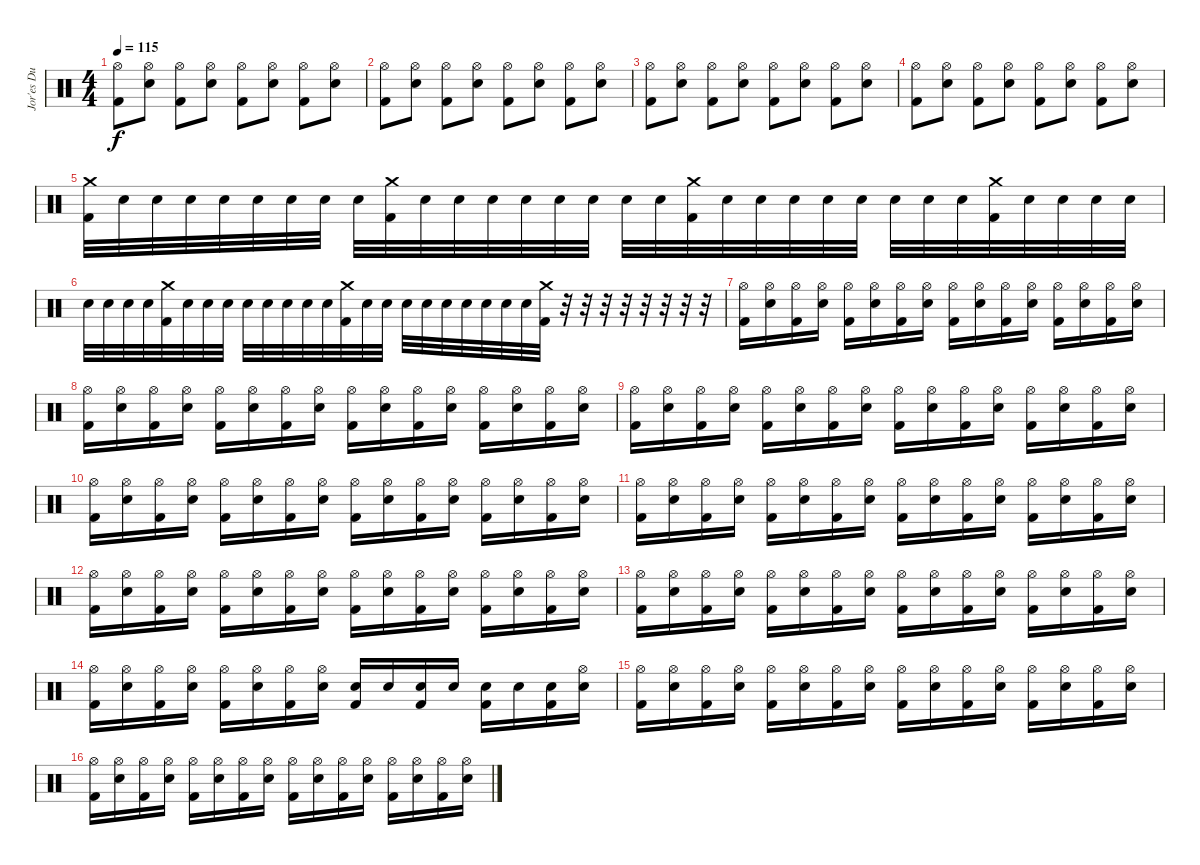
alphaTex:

\track ("Jor'es Du True" "Jor'es Du ") {instrument percussion}
\staff {score}
\articulation defaults
\ts (4 4)
\tempo 115
\clef neutral
\ks c
("Hi-Hat (open)" "Kick (hit) 2").8{dy f} ("Hi-Hat (open)" "Electric Snare (hit)").8 ("Hi-Hat (open)" "Kick (hit) 2").8 ("Hi-Hat (open)" "Electric Snare (hit)").8 ("Hi-Hat (open)" "Kick (hit) 2").8 ("Hi-Hat (open)" "Electric Snare (hit)").8 ("Hi-Hat (open)" "Kick (hit) 2").8 ("Hi-Hat (open)" "Electric Snare (hit)").8 |
("Hi-Hat (open)" "Kick (hit) 2").8 ("Hi-Hat (open)" "Electric Snare (hit)").8 ("Hi-Hat (open)" "Kick (hit) 2").8 ("Hi-Hat (open)" "Electric Snare (hit)").8 ("Hi-Hat (open)" "Kick (hit) 2").8 ("Hi-Hat (open)" "Electric Snare (hit)").8 ("Hi-Hat (open)" "Kick (hit) 2").8 ("Hi-Hat (open)" "Electric Snare (hit)").8 |
("Hi-Hat (open)" "Kick (hit) 2").8 ("Hi-Hat (open)" "Electric Snare (hit)").8 ("Hi-Hat (open)" "Kick (hit) 2").8 ("Hi-Hat (open)" "Electric Snare (hit)").8 ("Hi-Hat (open)" "Kick (hit) 2").8 ("Hi-Hat (open)" "Electric Snare (hit)").8 ("Hi-Hat (open)" "Kick (hit) 2").8 ("Hi-Hat (open)" "Electric Snare (hit)").8 |
("Hi-Hat (open)" "Kick (hit) 2").8 ("Hi-Hat (open)" "Electric Snare (hit)").8 ("Hi-Hat (open)" "Kick (hit) 2").8 ("Hi-Hat (open)" "Electric Snare (hit)").8 ("Hi-Hat (open)" "Kick (hit) 2").8 ("Hi-Hat (open)" "Electric Snare (hit)").8 ("Hi-Hat (open)" "Kick (hit) 2").8 ("Hi-Hat (open)" "Electric Snare (hit)").8 |
("Crash medium (hit)" "Kick (hit) 2").32 "Electric Snare (hit)".32 "Electric Snare (hit)".32 "Electric Snare (hit)".32 "Electric Snare (hit)".32 "Electric Snare (hit)".32 "Electric Snare (hit)".32 "Electric Snare (hit)".32 "Electric Snare (hit)".32 ("Crash medium (hit)" "Kick (hit) 2").32 "Electric Snare (hit)".32 "Electric Snare (hit)".32 "Electric Snare (hit)".32 "Electric Snare (hit)".32 "Electric Snare (hit)".32 "Electric Snare (hit)".32 "Electric Snare (hit)".32 "Electric Snare (hit)".32 ("Crash medium (hit)" "Kick (hit) 2").32 "Electric Snare (hit)".32 "Electric Snare (hit)".32 "Electric Snare (hit)".32 "Electric Snare (hit)".32 "Electric Snare (hit)".32 "Electric Snare (hit)".32 "Electric Snare (hit)".32 "Electric Snare (hit)".32 ("Crash medium (hit)" "Kick (hit) 2").32 "Electric Snare (hit)".32 "Electric Snare (hit)".32 "Electric Snare (hit)".32 "Electric Snare (hit)".32 |
"Electric Snare (hit)".32 "Electric Snare (hit)".32 "Electric Snare (hit)".32 "Electric Snare (hit)".32 ("Crash medium (hit)" "Kick (hit) 2").32 "Electric Snare (hit)".32 "Electric Snare (hit)".32 "Electric Snare (hit)".32 "Electric Snare (hit)".32 "Electric Snare (hit)".32 "Electric Snare (hit)".32 "Electric Snare (hit)".32 "Electric Snare (hit)".32 ("Crash medium (hit)" "Kick (hit) 2").32 "Electric Snare (hit)".32 "Electric Snare (hit)".32 "Electric Snare (hit)".32 "Electric Snare (hit)".32 "Electric Snare (hit)".32 "Electric Snare (hit)".32 "Electric Snare (hit)".32 "Electric Snare (hit)".32 "Electric Snare (hit)".32 ("Crash medium (hit)" "Kick (hit) 2").32 r.32 r.32 r.32 r.32 r.32 r.32 r.32 r.32 |
("Hi-Hat (open)" "Kick (hit) 2").16 ("Hi-Hat (open)" "Electric Snare (hit)").16 ("Hi-Hat (open)" "Kick (hit) 2").16 ("Hi-Hat (open)" "Electric Snare (hit)").16 ("Hi-Hat (open)" "Kick (hit) 2").16 ("Hi-Hat (open)" "Electric Snare (hit)").16 ("Hi-Hat (open)" "Kick (hit) 2").16 ("Hi-Hat (open)" "Electric Snare (hit)").16 ("Hi-Hat (open)" "Kick (hit) 2").16 ("Hi-Hat (open)" "Electric Snare (hit)").16 ("Hi-Hat (open)" "Kick (hit) 2").16 ("Hi-Hat (open)" "Electric Snare (hit)").16 ("Hi-Hat (open)" "Kick (hit) 2").16 ("Hi-Hat (open)" "Electric Snare (hit)").16 ("Hi-Hat (open)" "Kick (hit) 2").16 ("Hi-Hat (open)" "Electric Snare (hit)").16 |
("Hi-Hat (open)" "Kick (hit) 2").16 ("Hi-Hat (open)" "Electric Snare (hit)").16 ("Hi-Hat (open)" "Kick (hit) 2").16 ("Hi-Hat (open)" "Electric Snare (hit)").16 ("Hi-Hat (open)" "Kick (hit) 2").16 ("Hi-Hat (open)" "Electric Snare (hit)").16 ("Hi-Hat (open)" "Kick (hit) 2").16 ("Hi-Hat (open)" "Electric Snare (hit)").16 ("Hi-Hat (open)" "Kick (hit) 2").16 ("Hi-Hat (open)" "Electric Snare (hit)").16 ("Hi-Hat (open)" "Kick (hit) 2").16 ("Hi-Hat (open)" "Electric Snare (hit)").16 ("Hi-Hat (open)" "Kick (hit) 2").16 ("Hi-Hat (open)" "Electric Snare (hit)").16 ("Hi-Hat (open)" "Kick (hit) 2").16 ("Hi-Hat (open)" "Electric Snare (hit)").16 |
("Hi-Hat (open)" "Kick (hit) 2").16 ("Hi-Hat (open)" "Electric Snare (hit)").16 ("Hi-Hat (open)" "Kick (hit) 2").16 ("Hi-Hat (open)" "Electric Snare (hit)").16 ("Hi-Hat (open)" "Kick (hit) 2").16 ("Hi-Hat (open)" "Electric Snare (hit)").16 ("Hi-Hat (open)" "Kick (hit) 2").16 ("Hi-Hat (open)" "Electric Snare (hit)").16 ("Hi-Hat (open)" "Kick (hit) 2").16 ("Hi-Hat (open)" "Electric Snare (hit)").16 ("Hi-Hat (open)" "Kick (hit) 2").16 ("Hi-Hat (open)" "Electric Snare (hit)").16 ("Hi-Hat (open)" "Kick (hit) 2").16 ("Hi-Hat (open)" "Electric Snare (hit)").16 ("Hi-Hat (open)" "Kick (hit) 2").16 ("Hi-Hat (open)" "Electric Snare (hit)").16 |
("Hi-Hat (open)" "Kick (hit) 2").16 ("Hi-Hat (open)" "Electric Snare (hit)").16 ("Hi-Hat (open)" "Kick (hit) 2").16 ("Hi-Hat (open)" "Electric Snare (hit)").16 ("Hi-Hat (open)" "Kick (hit) 2").16 ("Hi-Hat (open)" "Electric Snare (hit)").16 ("Hi-Hat (open)" "Kick (hit) 2").16 ("Hi-Hat (open)" "Electric Snare (hit)").16 ("Hi-Hat (open)" "Kick (hit) 2").16 ("Hi-Hat (open)" "Electric Snare (hit)").16 ("Hi-Hat (open)" "Kick (hit) 2").16 ("Hi-Hat (open)" "Electric Snare (hit)").16 ("Hi-Hat (open)" "Kick (hit) 2").16 ("Hi-Hat (open)" "Electric Snare (hit)").16 ("Hi-Hat (open)" "Kick (hit) 2").16 ("Hi-Hat (open)" "Electric Snare (hit)").16 |
("Hi-Hat (open)" "Kick (hit) 2").16 ("Hi-Hat (open)" "Electric Snare (hit)").16 ("Hi-Hat (open)" "Kick (hit) 2").16 ("Hi-Hat (open)" "Electric Snare (hit)").16 ("Hi-Hat (open)" "Kick (hit) 2").16 ("Hi-Hat (open)" "Electric Snare (hit)").16 ("Hi-Hat (open)" "Kick (hit) 2").16 ("Hi-Hat (open)" "Electric Snare (hit)").16 ("Hi-Hat (open)" "Kick (hit) 2").16 ("Hi-Hat (open)" "Electric Snare (hit)").16 ("Hi-Hat (open)" "Kick (hit) 2").16 ("Hi-Hat (open)" "Electric Snare (hit)").16 ("Hi-Hat (open)" "Kick (hit) 2").16 ("Hi-Hat (open)" "Electric Snare (hit)").16 ("Hi-Hat (open)" "Kick (hit) 2").16 ("Hi-Hat (open)" "Electric Snare (hit)").16 |
("Hi-Hat (open)" "Kick (hit) 2").16 ("Hi-Hat (open)" "Electric Snare (hit)").16 ("Hi-Hat (open)" "Kick (hit) 2").16 ("Hi-Hat (open)" "Electric Snare (hit)").16 ("Hi-Hat (open)" "Kick (hit) 2").16 ("Hi-Hat (open)" "Electric Snare (hit)").16 ("Hi-Hat (open)" "Kick (hit) 2").16 ("Hi-Hat (open)" "Electric Snare (hit)").16 ("Hi-Hat (open)" "Kick (hit) 2").16 ("Hi-Hat (open)" "Electric Snare (hit)").16 ("Hi-Hat (open)" "Kick (hit) 2").16 ("Hi-Hat (open)" "Electric Snare (hit)").16 ("Hi-Hat (open)" "Kick (hit) 2").16 ("Hi-Hat (open)" "Electric Snare (hit)").16 ("Hi-Hat (open)" "Kick (hit) 2").16 ("Hi-Hat (open)" "Electric Snare (hit)").16 |
("Hi-Hat (open)" "Kick (hit) 2").16 ("Hi-Hat (open)" "Electric Snare (hit)").16 ("Hi-Hat (open)" "Kick (hit) 2").16 ("Hi-Hat (open)" "Electric Snare (hit)").16 ("Hi-Hat (open)" "Kick (hit) 2").16 ("Hi-Hat (open)" "Electric Snare (hit)").16 ("Hi-Hat (open)" "Kick (hit) 2").16 ("Hi-Hat (open)" "Electric Snare (hit)").16 ("Hi-Hat (open)" "Kick (hit) 2").16 ("Hi-Hat (open)" "Electric Snare (hit)").16 ("Hi-Hat (open)" "Kick (hit) 2").16 ("Hi-Hat (open)" "Electric Snare (hit)").16 ("Hi-Hat (open)" "Kick (hit) 2").16 ("Hi-Hat (open)" "Electric Snare (hit)").16 ("Hi-Hat (open)" "Kick (hit) 2").16 ("Hi-Hat (open)" "Electric Snare (hit)").16 |
("Hi-Hat (open)" "Kick (hit) 2").16 ("Hi-Hat (open)" "Electric Snare (hit)").16 ("Hi-Hat (open)" "Kick (hit) 2").16 ("Hi-Hat (open)" "Electric Snare (hit)").16 ("Hi-Hat (open)" "Kick (hit) 2").16 ("Hi-Hat (open)" "Electric Snare (hit)").16 ("Hi-Hat (open)" "Kick (hit) 2").16 ("Hi-Hat (open)" "Electric Snare (hit)").16 ("Electric Snare (hit)" "Kick (hit) 2").16 "Electric Snare (hit)".16 ("Electric Snare (hit)" "Kick (hit) 2").16 "Electric Snare (hit)".16 ("Electric Snare (hit)" "Kick (hit) 2").16 "Electric Snare (hit)".16 ("Electric Snare (hit)" "Kick (hit) 2").16 ("Hi-Hat (open)" "Electric Snare (hit)").16 |
("Hi-Hat (open)" "Kick (hit) 2").16 ("Hi-Hat (open)" "Electric Snare (hit)").16 ("Hi-Hat (open)" "Kick (hit) 2").16 ("Hi-Hat (open)" "Electric Snare (hit)").16 ("Hi-Hat (open)" "Kick (hit) 2").16 ("Hi-Hat (open)" "Electric Snare (hit)").16 ("Hi-Hat (open)" "Kick (hit) 2").16 ("Hi-Hat (open)" "Electric Snare (hit)").16 ("Hi-Hat (open)" "Kick (hit) 2").16 ("Hi-Hat (open)" "Electric Snare (hit)").16 ("Hi-Hat (open)" "Kick (hit) 2").16 ("Hi-Hat (open)" "Electric Snare (hit)").16 ("Hi-Hat (open)" "Kick (hit) 2").16 ("Hi-Hat (open)" "Electric Snare (hit)").16 ("Hi-Hat (open)" "Kick (hit) 2").16 ("Hi-Hat (open)" "Electric Snare (hit)").16 |
("Hi-Hat (open)" "Kick (hit) 2").16 ("Hi-Hat (open)" "Electric Snare (hit)").16 ("Hi-Hat (open)" "Kick (hit) 2").16 ("Hi-Hat (open)" "Electric Snare (hit)").16 ("Hi-Hat (open)" "Kick (hit) 2").16 ("Hi-Hat (open)" "Electric Snare (hit)").16 ("Hi-Hat (open)" "Kick (hit) 2").16 ("Hi-Hat (open)" "Electric Snare (hit)").16 ("Hi-Hat (open)" "Kick (hit) 2").16 ("Hi-Hat (open)" "Electric Snare (hit)").16 ("Hi-Hat (open)" "Kick (hit) 2").16 ("Hi-Hat (open)" "Electric Snare (hit)").16 ("Hi-Hat (open)" "Kick (hit) 2").16 ("Hi-Hat (open)" "Electric Snare (hit)").16 ("Hi-Hat (open)" "Kick (hit) 2").16 ("Hi-Hat (open)" "Electric Snare (hit)").16
